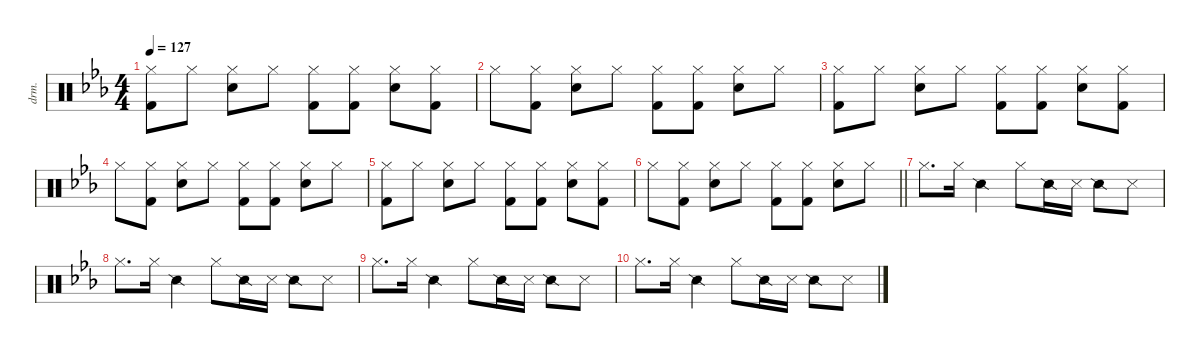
\defaultSystemsLayout 4
\hideDynamics
\bracketExtendMode nobrackets
\otherSystemsTrackNameOrientation horizontal
\track ("Drums" "drm.") {defaultSystemsLayout 4 instrument percussion}
\staff {score}
\articulation defaults
\ts (4 4)
\tempo 127
\clef neutral
\ks eb
("Hi-Hat (closed)"{acc forcenatural} "Kick (hit) 2"{acc forcenatural}).8{dy f beam Down} "Hi-Hat (closed)"{acc forcenatural}.8{beam Down} ("Hi-Hat (closed)"{acc forcenatural} "Snare (hit) 2"{acc forcenatural}).8{beam Down} "Hi-Hat (closed)"{acc forcenatural}.8{beam Down} ("Hi-Hat (closed)"{acc forcenatural} "Kick (hit) 2"{acc forcenatural}).8{beam Down} ("Hi-Hat (closed)"{acc forcenatural} "Kick (hit) 2"{acc forcenatural}).8{beam Down} ("Hi-Hat (closed)"{acc forcenatural} "Snare (hit) 2"{acc forcenatural}).8{beam Down} ("Hi-Hat (closed)"{acc forcenatural} "Kick (hit) 2"{acc forcenatural}).8{beam Down} |
"Hi-Hat (closed)"{acc forcenatural}.8{beam Down} ("Hi-Hat (closed)"{acc forcenatural} "Kick (hit) 2"{acc forcenatural}).8{beam Down} ("Hi-Hat (closed)"{acc forcenatural} "Snare (hit) 2"{acc forcenatural}).8{beam Down} "Hi-Hat (closed)"{acc forcenatural}.8{beam Down} ("Hi-Hat (closed)"{acc forcenatural} "Kick (hit) 2"{acc forcenatural}).8{beam Down} ("Hi-Hat (closed)"{acc forcenatural} "Kick (hit) 2"{acc forcenatural}).8{beam Down} ("Hi-Hat (closed)"{acc forcenatural} "Snare (hit) 2"{acc forcenatural}).8{beam Down} "Hi-Hat (closed)"{acc forcenatural}.8{beam Down} |
("Hi-Hat (closed)"{acc forcenatural} "Kick (hit) 2"{acc forcenatural}).8{beam Down} "Hi-Hat (closed)"{acc forcenatural}.8{beam Down} ("Hi-Hat (closed)"{acc forcenatural} "Snare (hit) 2"{acc forcenatural}).8{beam Down} "Hi-Hat (closed)"{acc forcenatural}.8{beam Down} ("Hi-Hat (closed)"{acc forcenatural} "Kick (hit) 2"{acc forcenatural}).8{beam Down} ("Hi-Hat (closed)"{acc forcenatural} "Kick (hit) 2"{acc forcenatural}).8{beam Down} ("Hi-Hat (closed)"{acc forcenatural} "Snare (hit) 2"{acc forcenatural}).8{beam Down} ("Hi-Hat (closed)"{acc forcenatural} "Kick (hit) 2"{acc forcenatural}).8{beam Down} |
"Hi-Hat (closed)"{acc forcenatural}.8{beam Down} ("Hi-Hat (closed)"{acc forcenatural} "Kick (hit) 2"{acc forcenatural}).8{beam Down} ("Hi-Hat (closed)"{acc forcenatural} "Snare (hit) 2"{acc forcenatural}).8{beam Down} "Hi-Hat (closed)"{acc forcenatural}.8{beam Down} ("Hi-Hat (closed)"{acc forcenatural} "Kick (hit) 2"{acc forcenatural}).8{beam Down} ("Hi-Hat (closed)"{acc forcenatural} "Kick (hit) 2"{acc forcenatural}).8{beam Down} ("Hi-Hat (closed)"{acc forcenatural} "Snare (hit) 2"{acc forcenatural}).8{beam Down} "Hi-Hat (closed)"{acc forcenatural}.8{beam Down} |
("Hi-Hat (closed)"{acc forcenatural} "Kick (hit) 2"{acc forcenatural}).8{beam Down} "Hi-Hat (closed)"{acc forcenatural}.8{beam Down} ("Hi-Hat (closed)"{acc forcenatural} "Snare (hit) 2"{acc forcenatural}).8{beam Down} "Hi-Hat (closed)"{acc forcenatural}.8{beam Down} ("Hi-Hat (closed)"{acc forcenatural} "Kick (hit) 2"{acc forcenatural}).8{beam Down} ("Hi-Hat (closed)"{acc forcenatural} "Kick (hit) 2"{acc forcenatural}).8{beam Down} ("Hi-Hat (closed)"{acc forcenatural} "Snare (hit) 2"{acc forcenatural}).8{beam Down} ("Hi-Hat (closed)"{acc forcenatural} "Kick (hit) 2"{acc forcenatural}).8{beam Down} |
\barLineRight lightlight "Hi-Hat (closed)"{acc forcenatural}.8{beam Down}
("Hi-Hat (closed)"{acc forcenatural} "Kick (hit) 2"{acc forcenatural}).8{beam Down} ("Hi-Hat (closed)"{acc forcenatural} "Snare (hit) 2"{acc forcenatural}).8{beam Down} "Hi-Hat (closed)"{acc forcenatural}.8{beam Down} ("Hi-Hat (closed)"{acc forcenatural} "Kick (hit) 2"{acc forcenatural}).8{beam Down} ("Hi-Hat (closed)"{acc forcenatural} "Kick (hit) 2"{acc forcenatural}).8{beam Down} ("Hi-Hat (closed)"{acc forcenatural} "Snare (hit) 2"{acc forcenatural}).8{beam Down} "Hi-Hat (closed)"{acc forcenatural}.8{beam Down} |
"Hi-Hat (closed)"{acc forcenatural}.8{d beam Down} "Hi-Hat (closed)"{acc forcenatural}.16{beam Down} "Snare (side stick) 2"{acc forcenatural}.4{beam Down} "Hi-Hat (closed)"{acc forcenatural}.8{beam Down} "Snare (side stick) 2"{acc forcenatural}.16{beam Down} "Metronome (hit)"{acc forcenatural}.16{beam Down} "Snare (side stick) 2"{acc forcenatural}.8{beam Down} "Metronome (hit)"{acc forcenatural}.8{beam Down} |
"Hi-Hat (closed)"{acc forcenatural}.8{d beam Down} "Hi-Hat (closed)"{acc forcenatural}.16{beam Down} "Snare (side stick) 2"{acc forcenatural}.4{beam Down} "Hi-Hat (closed)"{acc forcenatural}.8{beam Down} "Snare (side stick) 2"{acc forcenatural}.16{beam Down} "Metronome (hit)"{acc forcenatural}.16{beam Down} "Snare (side stick) 2"{acc forcenatural}.8{beam Down} "Metronome (hit)"{acc forcenatural}.8{beam Down} |
"Hi-Hat (closed)"{acc forcenatural}.8{d beam Down} "Hi-Hat (closed)"{acc forcenatural}.16{beam Down} "Snare (side stick) 2"{acc forcenatural}.4{beam Down} "Hi-Hat (closed)"{acc forcenatural}.8{beam Down} "Snare (side stick) 2"{acc forcenatural}.16{beam Down} "Metronome (hit)"{acc forcenatural}.16{beam Down} "Snare (side stick) 2"{acc forcenatural}.8{beam Down} "Metronome (hit)"{acc forcenatural}.8{beam Down} |
"Hi-Hat (closed)"{acc forcenatural}.8{d beam Down} "Hi-Hat (closed)"{acc forcenatural}.16{beam Down} "Snare (side stick) 2"{acc forcenatural}.4{beam Down} "Hi-Hat (closed)"{acc forcenatural}.8{beam Down} "Snare (side stick) 2"{acc forcenatural}.16{beam Down} "Metronome (hit)"{acc forcenatural}.16{beam Down} "Snare (side stick) 2"{acc forcenatural}.8{beam Down} "Metronome (hit)"{acc forcenatural}.8{beam Down}
